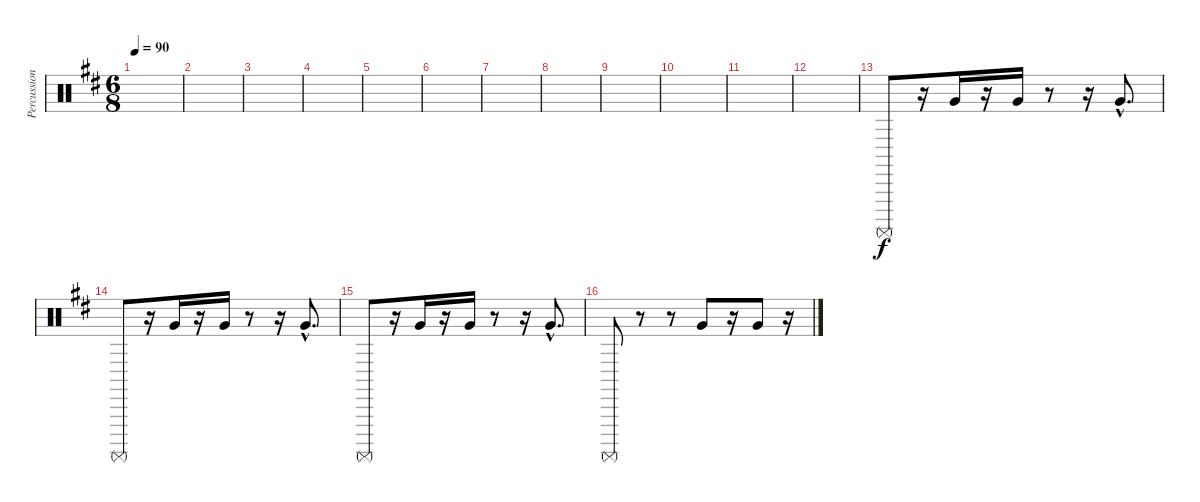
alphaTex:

\track ("Percussioni" "Percussion") {instrument percussion}
\staff {score}
\articulation defaults
\ts (6 8)
\tempo 90
\clef neutral
\ks bminor
|
|
|
|
|
|
|
|
|
|
|
|
"Surdo (mute)".8 r.16 "Very Low Tom (hit)".16 r.16 "Very Low Tom (hit)".16 r.8 r.16 "Very Low Tom (hit)"{hac}.8{d} |
"Surdo (mute)".8 r.16 "Very Low Tom (hit)".16 r.16 "Very Low Tom (hit)".16 r.8 r.16 "Very Low Tom (hit)"{hac}.8{d} |
"Surdo (mute)".8 r.16 "Very Low Tom (hit)".16 r.16 "Very Low Tom (hit)".16 r.8 r.16 "Very Low Tom (hit)"{hac}.8{d} |
"Surdo (mute)".8 r.8 r.8 "Very Low Tom (hit)".8 r.16 "Very Low Tom (hit)".8 r.16
